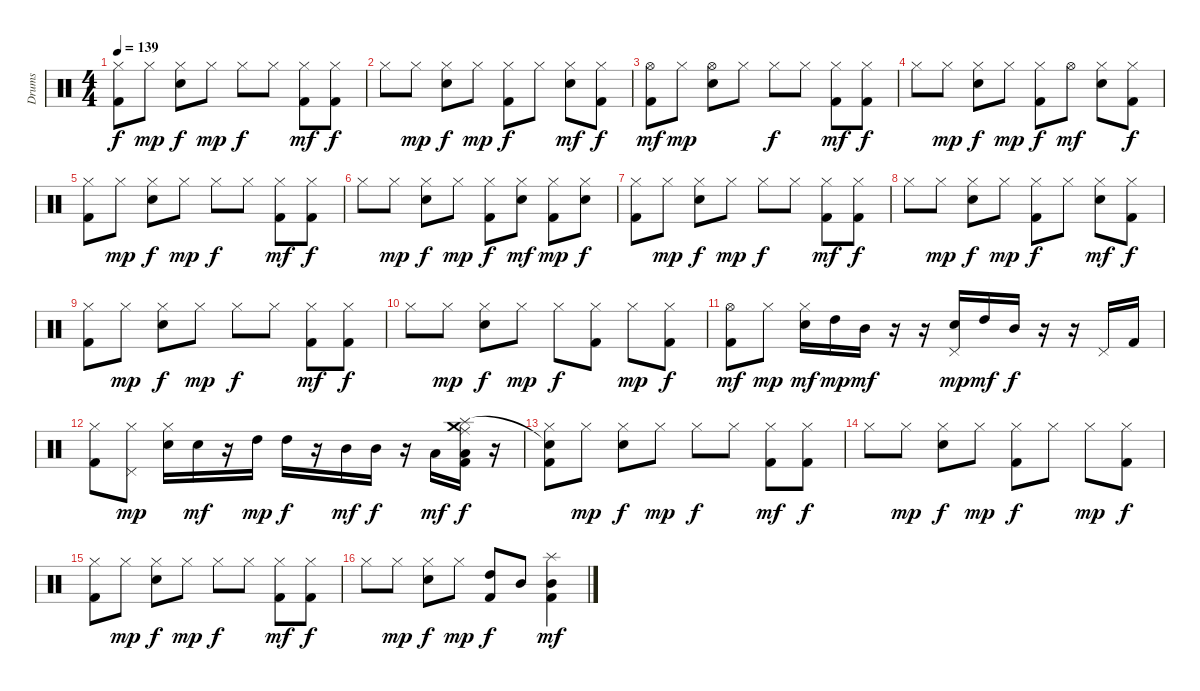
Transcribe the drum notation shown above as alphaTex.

\track ("Drums" "Drums") {instrument percussion}
\staff {score}
\articulation defaults
\ts (4 4)
\tempo 139
\clef neutral
\ks c
("Hi-Hat (closed)" "Kick (hit) 2").8{dy f} "Hi-Hat (closed)".8{dy mp} ("Hi-Hat (closed)" "Snare (hit) 2").8{dy f} "Hi-Hat (closed)".8{dy mp} "Hi-Hat (closed)".8{dy f} "Hi-Hat (closed)".8 ("Hi-Hat (closed)" "Kick (hit) 2").8{dy mf} ("Hi-Hat (closed)" "Kick (hit) 2").8{dy f} |
"Hi-Hat (closed)".8 "Hi-Hat (closed)".8{dy mp} ("Hi-Hat (closed)" "Snare (hit) 2").8{dy f} "Hi-Hat (closed)".8{dy mp} ("Hi-Hat (closed)" "Kick (hit) 2").8{dy f} "Hi-Hat (closed)".8 ("Hi-Hat (closed)" "Snare (hit) 2").8{dy mf} ("Hi-Hat (closed)" "Kick (hit) 2").8{dy f} |
("Hi-Hat (open)" "Kick (hit) 2").8{dy mf} "Hi-Hat (closed)".8{dy mp} ("Hi-Hat (open)" "Snare (hit) 2").8 "Hi-Hat (closed)".8 "Hi-Hat (closed)".8{dy f} "Hi-Hat (closed)".8 ("Hi-Hat (closed)" "Kick (hit) 2").8{dy mf} ("Hi-Hat (closed)" "Kick (hit) 2").8{dy f} |
"Hi-Hat (closed)".8 "Hi-Hat (closed)".8{dy mp} ("Hi-Hat (closed)" "Snare (hit) 2").8{dy f} "Hi-Hat (closed)".8{dy mp} ("Hi-Hat (closed)" "Kick (hit) 2").8{dy f} "Hi-Hat (open)".8{dy mf} ("Hi-Hat (closed)" "Snare (hit) 2").8 ("Hi-Hat (closed)" "Kick (hit) 2").8{dy f} |
("Hi-Hat (closed)" "Kick (hit) 2").8 "Hi-Hat (closed)".8{dy mp} ("Hi-Hat (closed)" "Snare (hit) 2").8{dy f} "Hi-Hat (closed)".8{dy mp} "Hi-Hat (closed)".8{dy f} "Hi-Hat (closed)".8 ("Hi-Hat (closed)" "Kick (hit) 2").8{dy mf} ("Hi-Hat (closed)" "Kick (hit) 2").8{dy f} |
"Hi-Hat (closed)".8 "Hi-Hat (closed)".8{dy mp} ("Hi-Hat (closed)" "Snare (hit) 2").8{dy f} "Hi-Hat (closed)".8{dy mp} ("Hi-Hat (closed)" "Kick (hit) 2").8{dy f} ("Hi-Hat (closed)" "Snare (hit) 2").8{dy mf} ("Hi-Hat (closed)" "Kick (hit) 2").8{dy mp} ("Hi-Hat (closed)" "Snare (hit) 2").8{dy f} |
("Hi-Hat (closed)" "Kick (hit) 2").8 "Hi-Hat (closed)".8{dy mp} ("Hi-Hat (closed)" "Snare (hit) 2").8{dy f} "Hi-Hat (closed)".8{dy mp} "Hi-Hat (closed)".8{dy f} "Hi-Hat (closed)".8 ("Hi-Hat (closed)" "Kick (hit) 2").8{dy mf} ("Hi-Hat (closed)" "Kick (hit) 2").8{dy f} |
"Hi-Hat (closed)".8 "Hi-Hat (closed)".8{dy mp} ("Hi-Hat (closed)" "Snare (hit) 2").8{dy f} "Hi-Hat (closed)".8{dy mp} ("Hi-Hat (closed)" "Kick (hit) 2").8{dy f} "Hi-Hat (closed)".8 ("Hi-Hat (closed)" "Snare (hit) 2").8{dy mf} ("Hi-Hat (closed)" "Kick (hit) 2").8{dy f} |
("Hi-Hat (closed)" "Kick (hit) 2").8 "Hi-Hat (closed)".8{dy mp} ("Hi-Hat (closed)" "Snare (hit) 2").8{dy f} "Hi-Hat (closed)".8{dy mp} "Hi-Hat (closed)".8{dy f} "Hi-Hat (closed)".8 ("Hi-Hat (closed)" "Kick (hit) 2").8{dy mf} ("Hi-Hat (closed)" "Kick (hit) 2").8{dy f} |
"Hi-Hat (closed)".8 "Hi-Hat (closed)".8{dy mp} ("Hi-Hat (closed)" "Snare (hit) 2").8{dy f} "Hi-Hat (closed)".8{dy mp} "Hi-Hat (closed)".8{dy f} ("Hi-Hat (closed)" "Kick (hit) 2").8 "Hi-Hat (closed)".8{dy mp} ("Hi-Hat (closed)" "Kick (hit) 2").8{dy f} |
("Hi-Hat (open)" "Kick (hit) 2").8{dy mf} "Hi-Hat (closed)".8{dy mp} ("Hi-Hat (closed)" "Snare (hit) 2").16{dy mf} "High Tom (hit)".16{dy mp} "Mid Tom (hit)".16{dy mf} r.16 r.16 ("Pedal Hi-Hat (hit)" "Snare (hit) 2").16{dy mp} "High Tom (hit)".16{dy mf} "Mid Tom (hit)".16{dy f} r.16 r.16 "Pedal Hi-Hat (hit)".16 "Kick (hit) 2".16 |
("Hi-Hat (closed)" "Kick (hit) 2").8 ("Pedal Hi-Hat (hit)" "Hi-Hat (closed)").8{dy mp} ("Hi-Hat (closed)" "Snare (hit) 2").16 "Snare (hit) 2".16{dy mf} r.16 "High Tom (hit)".16{dy mp} "High Tom (hit)".16{dy f} r.16 "Mid Tom (hit)".16{dy mf} "Mid Tom (hit)".16{dy f} r.16 "Low Tom (hit)".16{dy mf} ("Splash (hit)" "Ride (middle)" "Crash medium (hit)" "Low Tom (hit)" "Kick (hit) 2").16{dy f} r.16 |
("Snare (hit)"{t} "Hi-Hat (closed)" "Kick (hit) 2").8 "Hi-Hat (closed)".8{dy mp} ("Hi-Hat (closed)" "Snare (hit) 2").8{dy f} "Hi-Hat (closed)".8{dy mp} "Hi-Hat (closed)".8{dy f} "Hi-Hat (closed)".8 ("Hi-Hat (closed)" "Kick (hit) 2").8{dy mf} ("Hi-Hat (closed)" "Kick (hit) 2").8{dy f} |
"Hi-Hat (closed)".8 "Hi-Hat (closed)".8{dy mp} ("Hi-Hat (closed)" "Snare (hit) 2").8{dy f} "Hi-Hat (closed)".8{dy mp} ("Hi-Hat (closed)" "Kick (hit) 2").8{dy f} "Hi-Hat (closed)".8 "Hi-Hat (closed)".8{dy mp} ("Hi-Hat (closed)" "Kick (hit) 2").8{dy f} |
("Hi-Hat (closed)" "Kick (hit) 2").8 "Hi-Hat (closed)".8{dy mp} ("Hi-Hat (closed)" "Snare (hit) 2").8{dy f} "Hi-Hat (closed)".8{dy mp} "Hi-Hat (closed)".8{dy f} "Hi-Hat (closed)".8 ("Hi-Hat (closed)" "Kick (hit) 2").8{dy mf} ("Hi-Hat (closed)" "Kick (hit) 2").8{dy f} |
"Hi-Hat (closed)".8 "Hi-Hat (closed)".8{dy mp} ("Hi-Hat (closed)" "Snare (hit) 2").8{dy f} "Hi-Hat (closed)".8{dy mp} ("High Tom (hit)" "Kick (hit) 2").8{dy f} "Mid Tom (hit)".8 ("Splash (hit)" "Mid Tom (hit)" "Kick (hit) 2").4{dy mf}
